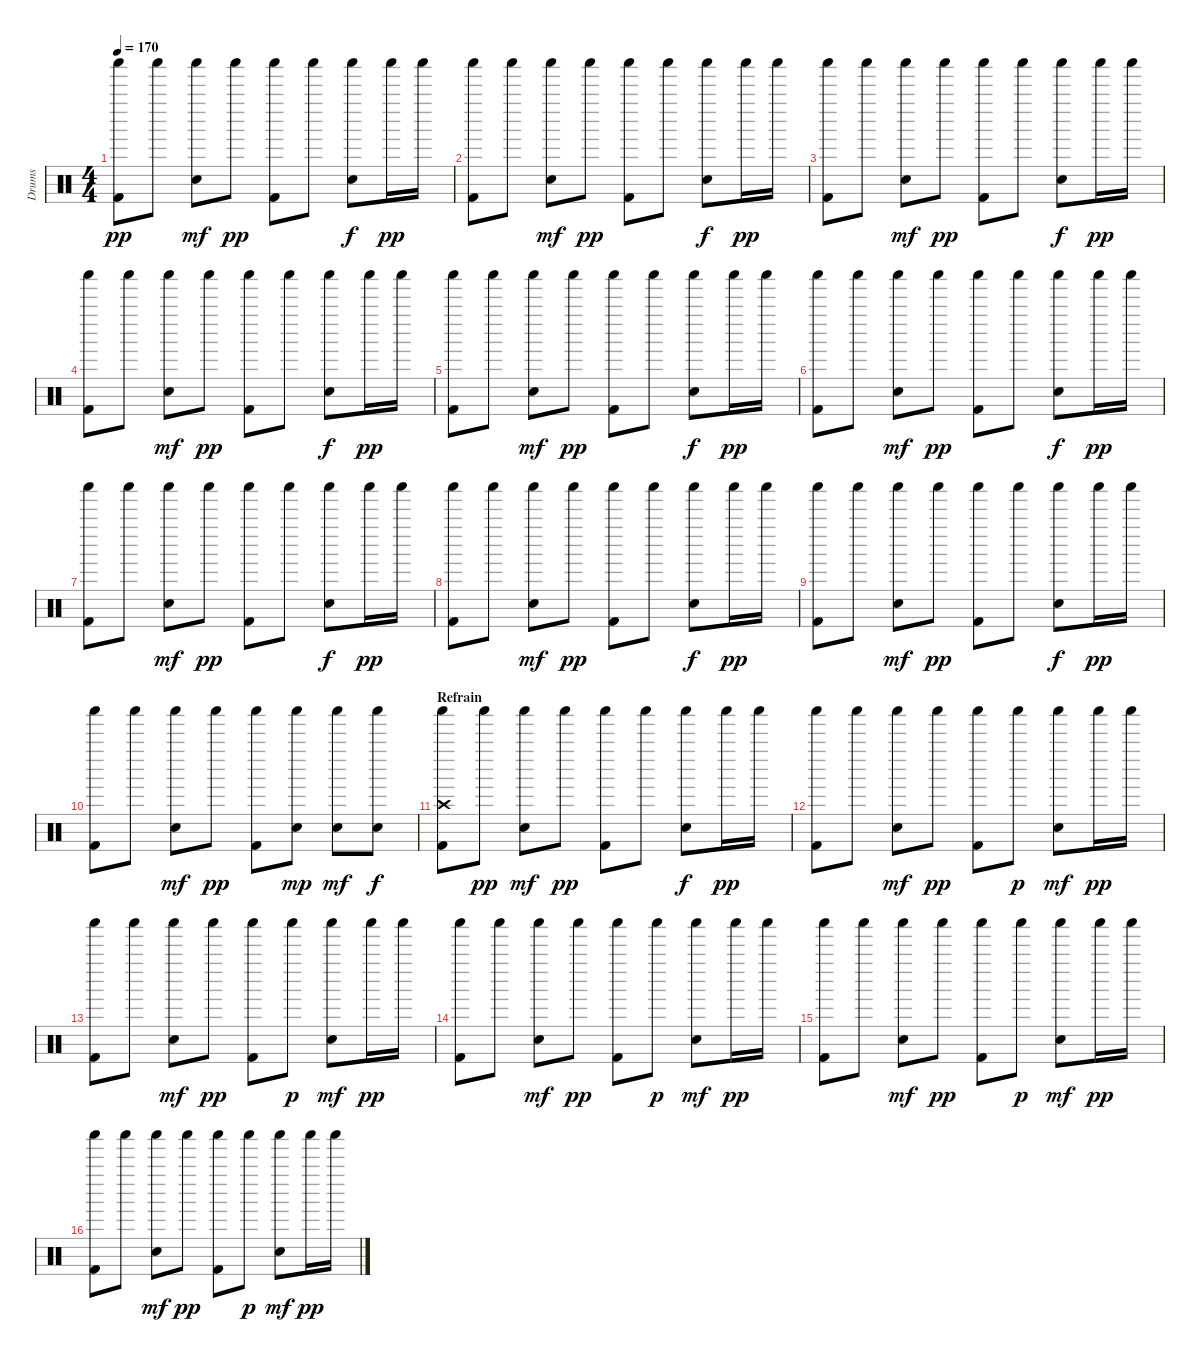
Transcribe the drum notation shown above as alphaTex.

\track ("Drums" "Drums") {instrument percussion}
\staff {score}
\articulation defaults
\ts (4 4)
\tempo 170
\clef neutral
\ks c
("Kick (hit) 2" "Shaker (hit)").8{dy pp} "Shaker (hit)".8 ("Snare (hit) 2" "Shaker (hit)").8{dy mf} "Shaker (hit)".8{dy pp} ("Kick (hit) 2" "Shaker (hit)").8 "Shaker (hit)".8 ("Snare (hit) 2" "Shaker (hit)").8{dy f} "Shaker (hit)".16{dy pp} "Shaker (hit)".16 |
("Kick (hit) 2" "Shaker (hit)").8 "Shaker (hit)".8 ("Snare (hit) 2" "Shaker (hit)").8{dy mf} "Shaker (hit)".8{dy pp} ("Kick (hit) 2" "Shaker (hit)").8 "Shaker (hit)".8 ("Snare (hit) 2" "Shaker (hit)").8{dy f} "Shaker (hit)".16{dy pp} "Shaker (hit)".16 |
("Kick (hit) 2" "Shaker (hit)").8 "Shaker (hit)".8 ("Snare (hit) 2" "Shaker (hit)").8{dy mf} "Shaker (hit)".8{dy pp} ("Kick (hit) 2" "Shaker (hit)").8 "Shaker (hit)".8 ("Snare (hit) 2" "Shaker (hit)").8{dy f} "Shaker (hit)".16{dy pp} "Shaker (hit)".16 |
("Kick (hit) 2" "Shaker (hit)").8 "Shaker (hit)".8 ("Snare (hit) 2" "Shaker (hit)").8{dy mf} "Shaker (hit)".8{dy pp} ("Kick (hit) 2" "Shaker (hit)").8 "Shaker (hit)".8 ("Snare (hit) 2" "Shaker (hit)").8{dy f} "Shaker (hit)".16{dy pp} "Shaker (hit)".16 |
("Kick (hit) 2" "Shaker (hit)").8 "Shaker (hit)".8 ("Snare (hit) 2" "Shaker (hit)").8{dy mf} "Shaker (hit)".8{dy pp} ("Kick (hit) 2" "Shaker (hit)").8 "Shaker (hit)".8 ("Snare (hit) 2" "Shaker (hit)").8{dy f} "Shaker (hit)".16{dy pp} "Shaker (hit)".16 |
("Kick (hit) 2" "Shaker (hit)").8 "Shaker (hit)".8 ("Snare (hit) 2" "Shaker (hit)").8{dy mf} "Shaker (hit)".8{dy pp} ("Kick (hit) 2" "Shaker (hit)").8 "Shaker (hit)".8 ("Snare (hit) 2" "Shaker (hit)").8{dy f} "Shaker (hit)".16{dy pp} "Shaker (hit)".16 |
("Kick (hit) 2" "Shaker (hit)").8 "Shaker (hit)".8 ("Snare (hit) 2" "Shaker (hit)").8{dy mf} "Shaker (hit)".8{dy pp} ("Kick (hit) 2" "Shaker (hit)").8 "Shaker (hit)".8 ("Snare (hit) 2" "Shaker (hit)").8{dy f} "Shaker (hit)".16{dy pp} "Shaker (hit)".16 |
("Kick (hit) 2" "Shaker (hit)").8 "Shaker (hit)".8 ("Snare (hit) 2" "Shaker (hit)").8{dy mf} "Shaker (hit)".8{dy pp} ("Kick (hit) 2" "Shaker (hit)").8 "Shaker (hit)".8 ("Snare (hit) 2" "Shaker (hit)").8{dy f} "Shaker (hit)".16{dy pp} "Shaker (hit)".16 |
("Kick (hit) 2" "Shaker (hit)").8 "Shaker (hit)".8 ("Snare (hit) 2" "Shaker (hit)").8{dy mf} "Shaker (hit)".8{dy pp} ("Kick (hit) 2" "Shaker (hit)").8 "Shaker (hit)".8 ("Snare (hit) 2" "Shaker (hit)").8{dy f} "Shaker (hit)".16{dy pp} "Shaker (hit)".16 |
("Kick (hit) 2" "Shaker (hit)").8 "Shaker (hit)".8 ("Snare (hit) 2" "Shaker (hit)").8{dy mf} "Shaker (hit)".8{dy pp} ("Kick (hit) 2" "Shaker (hit)").8 ("Snare (hit) 2" "Shaker (hit)").8{dy mp} ("Snare (hit) 2" "Shaker (hit)").8{dy mf} ("Snare (hit) 2" "Shaker (hit)").8{dy f} |
\section ("" "Refrain")
("Crash high (hit)" "Kick (hit) 2" "Shaker (hit)").8 "Shaker (hit)".8{dy pp} ("Snare (hit) 2" "Shaker (hit)").8{dy mf} "Shaker (hit)".8{dy pp} ("Kick (hit) 2" "Shaker (hit)").8 "Shaker (hit)".8 ("Snare (hit) 2" "Shaker (hit)").8{dy f} "Shaker (hit)".16{dy pp} "Shaker (hit)".16 |
("Kick (hit) 2" "Shaker (hit)").8 "Shaker (hit)".8 ("Snare (hit) 2" "Shaker (hit)").8{dy mf} "Shaker (hit)".8{dy pp} ("Kick (hit) 2" "Shaker (hit)").8 "Shaker (hit)".8{dy p} ("Snare (hit) 2" "Shaker (hit)").8{dy mf} "Shaker (hit)".16{dy pp} "Shaker (hit)".16 |
("Kick (hit) 2" "Shaker (hit)").8 "Shaker (hit)".8 ("Snare (hit) 2" "Shaker (hit)").8{dy mf} "Shaker (hit)".8{dy pp} ("Kick (hit) 2" "Shaker (hit)").8 "Shaker (hit)".8{dy p} ("Snare (hit) 2" "Shaker (hit)").8{dy mf} "Shaker (hit)".16{dy pp} "Shaker (hit)".16 |
("Kick (hit) 2" "Shaker (hit)").8 "Shaker (hit)".8 ("Snare (hit) 2" "Shaker (hit)").8{dy mf} "Shaker (hit)".8{dy pp} ("Kick (hit) 2" "Shaker (hit)").8 "Shaker (hit)".8{dy p} ("Snare (hit) 2" "Shaker (hit)").8{dy mf} "Shaker (hit)".16{dy pp} "Shaker (hit)".16 |
("Kick (hit) 2" "Shaker (hit)").8 "Shaker (hit)".8 ("Snare (hit) 2" "Shaker (hit)").8{dy mf} "Shaker (hit)".8{dy pp} ("Kick (hit) 2" "Shaker (hit)").8 "Shaker (hit)".8{dy p} ("Snare (hit) 2" "Shaker (hit)").8{dy mf} "Shaker (hit)".16{dy pp} "Shaker (hit)".16 |
("Kick (hit) 2" "Shaker (hit)").8 "Shaker (hit)".8 ("Snare (hit) 2" "Shaker (hit)").8{dy mf} "Shaker (hit)".8{dy pp} ("Kick (hit) 2" "Shaker (hit)").8 "Shaker (hit)".8{dy p} ("Snare (hit) 2" "Shaker (hit)").8{dy mf} "Shaker (hit)".16{dy pp} "Shaker (hit)".16
